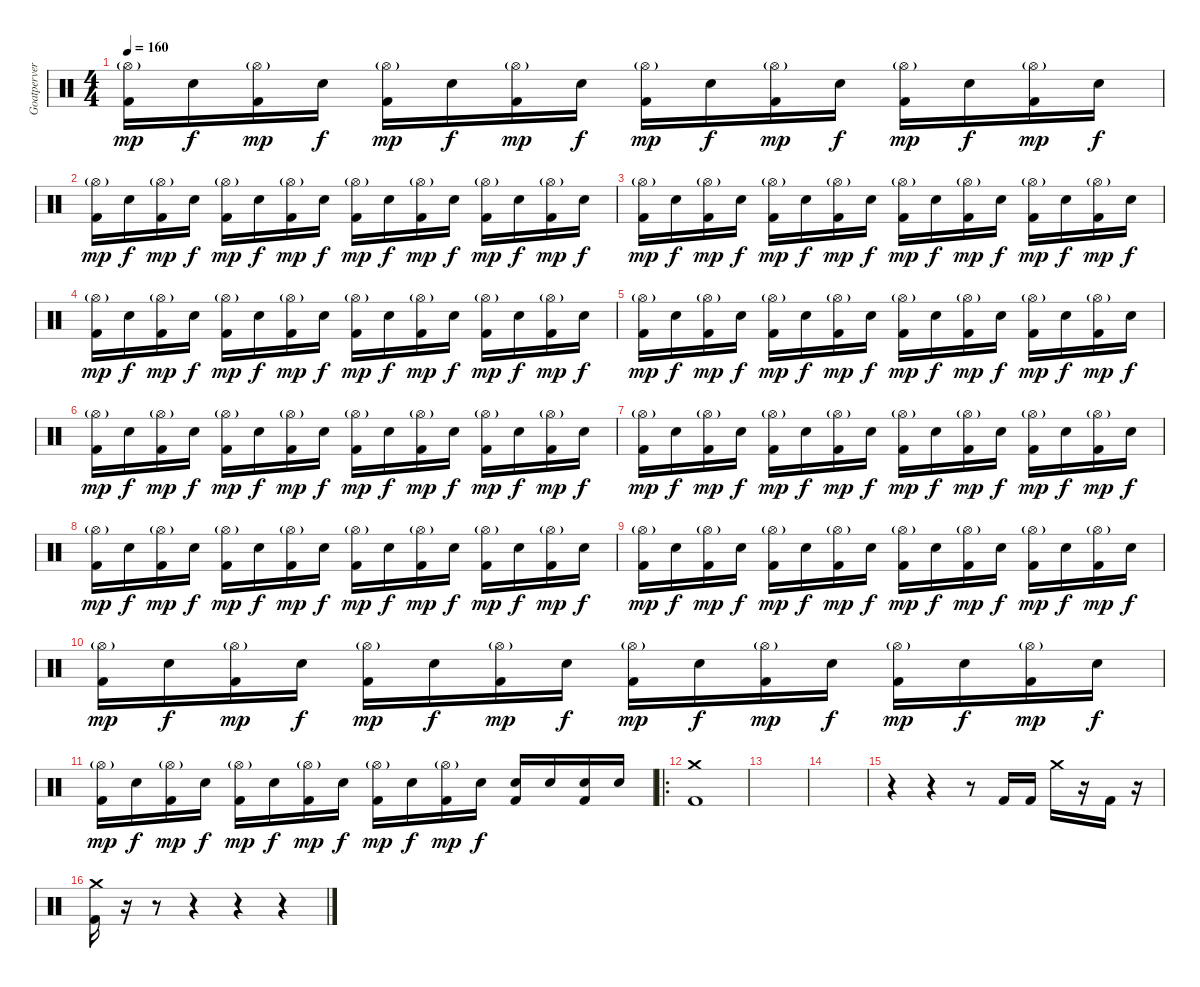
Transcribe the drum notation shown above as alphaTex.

\track ("Goatpervertor " "Goatperver") {instrument percussion}
\staff {score}
\articulation defaults
\ts (4 4)
\tempo 160
\clef neutral
\ks c
("Hi-Hat (open)"{g} "Kick (hit) 2").16{dy mp} "Electric Snare (hit)".16{dy f} ("Hi-Hat (open)"{g} "Kick (hit) 2").16{dy mp} "Electric Snare (hit)".16{dy f} ("Hi-Hat (open)"{g} "Kick (hit) 2").16{dy mp} "Electric Snare (hit)".16{dy f} ("Hi-Hat (open)"{g} "Kick (hit) 2").16{dy mp} "Electric Snare (hit)".16{dy f} ("Hi-Hat (open)"{g} "Kick (hit) 2").16{dy mp} "Electric Snare (hit)".16{dy f} ("Hi-Hat (open)"{g} "Kick (hit) 2").16{dy mp} "Electric Snare (hit)".16{dy f} ("Hi-Hat (open)"{g} "Kick (hit) 2").16{dy mp} "Electric Snare (hit)".16{dy f} ("Hi-Hat (open)"{g} "Kick (hit) 2").16{dy mp} "Electric Snare (hit)".16{dy f} |
("Hi-Hat (open)"{g} "Kick (hit) 2").16{dy mp} "Electric Snare (hit)".16{dy f} ("Hi-Hat (open)"{g} "Kick (hit) 2").16{dy mp} "Electric Snare (hit)".16{dy f} ("Hi-Hat (open)"{g} "Kick (hit) 2").16{dy mp} "Electric Snare (hit)".16{dy f} ("Hi-Hat (open)"{g} "Kick (hit) 2").16{dy mp} "Electric Snare (hit)".16{dy f} ("Hi-Hat (open)"{g} "Kick (hit) 2").16{dy mp} "Electric Snare (hit)".16{dy f} ("Hi-Hat (open)"{g} "Kick (hit) 2").16{dy mp} "Electric Snare (hit)".16{dy f} ("Hi-Hat (open)"{g} "Kick (hit) 2").16{dy mp} "Electric Snare (hit)".16{dy f} ("Hi-Hat (open)"{g} "Kick (hit) 2").16{dy mp} "Electric Snare (hit)".16{dy f} |
("Hi-Hat (open)"{g} "Kick (hit) 2").16{dy mp} "Electric Snare (hit)".16{dy f} ("Hi-Hat (open)"{g} "Kick (hit) 2").16{dy mp} "Electric Snare (hit)".16{dy f} ("Hi-Hat (open)"{g} "Kick (hit) 2").16{dy mp} "Electric Snare (hit)".16{dy f} ("Hi-Hat (open)"{g} "Kick (hit) 2").16{dy mp} "Electric Snare (hit)".16{dy f} ("Hi-Hat (open)"{g} "Kick (hit) 2").16{dy mp} "Electric Snare (hit)".16{dy f} ("Hi-Hat (open)"{g} "Kick (hit) 2").16{dy mp} "Electric Snare (hit)".16{dy f} ("Hi-Hat (open)"{g} "Kick (hit) 2").16{dy mp} "Electric Snare (hit)".16{dy f} ("Hi-Hat (open)"{g} "Kick (hit) 2").16{dy mp} "Electric Snare (hit)".16{dy f} |
("Hi-Hat (open)"{g} "Kick (hit) 2").16{dy mp} "Electric Snare (hit)".16{dy f} ("Hi-Hat (open)"{g} "Kick (hit) 2").16{dy mp} "Electric Snare (hit)".16{dy f} ("Hi-Hat (open)"{g} "Kick (hit) 2").16{dy mp} "Electric Snare (hit)".16{dy f} ("Hi-Hat (open)"{g} "Kick (hit) 2").16{dy mp} "Electric Snare (hit)".16{dy f} ("Hi-Hat (open)"{g} "Kick (hit) 2").16{dy mp} "Electric Snare (hit)".16{dy f} ("Hi-Hat (open)"{g} "Kick (hit) 2").16{dy mp} "Electric Snare (hit)".16{dy f} ("Hi-Hat (open)"{g} "Kick (hit) 2").16{dy mp} "Electric Snare (hit)".16{dy f} ("Hi-Hat (open)"{g} "Kick (hit) 2").16{dy mp} "Electric Snare (hit)".16{dy f} |
("Hi-Hat (open)"{g} "Kick (hit) 2").16{dy mp} "Electric Snare (hit)".16{dy f} ("Hi-Hat (open)"{g} "Kick (hit) 2").16{dy mp} "Electric Snare (hit)".16{dy f} ("Hi-Hat (open)"{g} "Kick (hit) 2").16{dy mp} "Electric Snare (hit)".16{dy f} ("Hi-Hat (open)"{g} "Kick (hit) 2").16{dy mp} "Electric Snare (hit)".16{dy f} ("Hi-Hat (open)"{g} "Kick (hit) 2").16{dy mp} "Electric Snare (hit)".16{dy f} ("Hi-Hat (open)"{g} "Kick (hit) 2").16{dy mp} "Electric Snare (hit)".16{dy f} ("Hi-Hat (open)"{g} "Kick (hit) 2").16{dy mp} "Electric Snare (hit)".16{dy f} ("Hi-Hat (open)"{g} "Kick (hit) 2").16{dy mp} "Electric Snare (hit)".16{dy f} |
("Hi-Hat (open)"{g} "Kick (hit) 2").16{dy mp} "Electric Snare (hit)".16{dy f} ("Hi-Hat (open)"{g} "Kick (hit) 2").16{dy mp} "Electric Snare (hit)".16{dy f} ("Hi-Hat (open)"{g} "Kick (hit) 2").16{dy mp} "Electric Snare (hit)".16{dy f} ("Hi-Hat (open)"{g} "Kick (hit) 2").16{dy mp} "Electric Snare (hit)".16{dy f} ("Hi-Hat (open)"{g} "Kick (hit) 2").16{dy mp} "Electric Snare (hit)".16{dy f} ("Hi-Hat (open)"{g} "Kick (hit) 2").16{dy mp} "Electric Snare (hit)".16{dy f} ("Hi-Hat (open)"{g} "Kick (hit) 2").16{dy mp} "Electric Snare (hit)".16{dy f} ("Hi-Hat (open)"{g} "Kick (hit) 2").16{dy mp} "Electric Snare (hit)".16{dy f} |
("Hi-Hat (open)"{g} "Kick (hit) 2").16{dy mp} "Electric Snare (hit)".16{dy f} ("Hi-Hat (open)"{g} "Kick (hit) 2").16{dy mp} "Electric Snare (hit)".16{dy f} ("Hi-Hat (open)"{g} "Kick (hit) 2").16{dy mp} "Electric Snare (hit)".16{dy f} ("Hi-Hat (open)"{g} "Kick (hit) 2").16{dy mp} "Electric Snare (hit)".16{dy f} ("Hi-Hat (open)"{g} "Kick (hit) 2").16{dy mp} "Electric Snare (hit)".16{dy f} ("Hi-Hat (open)"{g} "Kick (hit) 2").16{dy mp} "Electric Snare (hit)".16{dy f} ("Hi-Hat (open)"{g} "Kick (hit) 2").16{dy mp} "Electric Snare (hit)".16{dy f} ("Hi-Hat (open)"{g} "Kick (hit) 2").16{dy mp} "Electric Snare (hit)".16{dy f} |
("Hi-Hat (open)"{g} "Kick (hit) 2").16{dy mp} "Electric Snare (hit)".16{dy f} ("Hi-Hat (open)"{g} "Kick (hit) 2").16{dy mp} "Electric Snare (hit)".16{dy f} ("Hi-Hat (open)"{g} "Kick (hit) 2").16{dy mp} "Electric Snare (hit)".16{dy f} ("Hi-Hat (open)"{g} "Kick (hit) 2").16{dy mp} "Electric Snare (hit)".16{dy f} ("Hi-Hat (open)"{g} "Kick (hit) 2").16{dy mp} "Electric Snare (hit)".16{dy f} ("Hi-Hat (open)"{g} "Kick (hit) 2").16{dy mp} "Electric Snare (hit)".16{dy f} ("Hi-Hat (open)"{g} "Kick (hit) 2").16{dy mp} "Electric Snare (hit)".16{dy f} ("Hi-Hat (open)"{g} "Kick (hit) 2").16{dy mp} "Electric Snare (hit)".16{dy f} |
("Hi-Hat (open)"{g} "Kick (hit) 2").16{dy mp} "Electric Snare (hit)".16{dy f} ("Hi-Hat (open)"{g} "Kick (hit) 2").16{dy mp} "Electric Snare (hit)".16{dy f} ("Hi-Hat (open)"{g} "Kick (hit) 2").16{dy mp} "Electric Snare (hit)".16{dy f} ("Hi-Hat (open)"{g} "Kick (hit) 2").16{dy mp} "Electric Snare (hit)".16{dy f} ("Hi-Hat (open)"{g} "Kick (hit) 2").16{dy mp} "Electric Snare (hit)".16{dy f} ("Hi-Hat (open)"{g} "Kick (hit) 2").16{dy mp} "Electric Snare (hit)".16{dy f} ("Hi-Hat (open)"{g} "Kick (hit) 2").16{dy mp} "Electric Snare (hit)".16{dy f} ("Hi-Hat (open)"{g} "Kick (hit) 2").16{dy mp} "Electric Snare (hit)".16{dy f} |
("Hi-Hat (open)"{g} "Kick (hit) 2").16{dy mp} "Electric Snare (hit)".16{dy f} ("Hi-Hat (open)"{g} "Kick (hit) 2").16{dy mp} "Electric Snare (hit)".16{dy f} ("Hi-Hat (open)"{g} "Kick (hit) 2").16{dy mp} "Electric Snare (hit)".16{dy f} ("Hi-Hat (open)"{g} "Kick (hit) 2").16{dy mp} "Electric Snare (hit)".16{dy f} ("Hi-Hat (open)"{g} "Kick (hit) 2").16{dy mp} "Electric Snare (hit)".16{dy f} ("Hi-Hat (open)"{g} "Kick (hit) 2").16{dy mp} "Electric Snare (hit)".16{dy f} ("Hi-Hat (open)"{g} "Kick (hit) 2").16{dy mp} "Electric Snare (hit)".16{dy f} ("Hi-Hat (open)"{g} "Kick (hit) 2").16{dy mp} "Electric Snare (hit)".16{dy f} |
("Hi-Hat (open)"{g} "Kick (hit) 2").16{dy mp} "Electric Snare (hit)".16{dy f} ("Hi-Hat (open)"{g} "Kick (hit) 2").16{dy mp} "Electric Snare (hit)".16{dy f} ("Hi-Hat (open)"{g} "Kick (hit) 2").16{dy mp} "Electric Snare (hit)".16{dy f} ("Hi-Hat (open)"{g} "Kick (hit) 2").16{dy mp} "Electric Snare (hit)".16{dy f} ("Hi-Hat (open)"{g} "Kick (hit) 2").16{dy mp} "Electric Snare (hit)".16{dy f} ("Hi-Hat (open)"{g} "Kick (hit) 2").16{dy mp} "Electric Snare (hit)".16{dy f} ("Electric Snare (hit)" "Kick (hit) 2").16 "Electric Snare (hit)".16 ("Electric Snare (hit)" "Kick (hit) 2").16 "Electric Snare (hit)".16 |
\ro
("Crash medium (hit)" "Kick (hit) 2").1 |
|
|
r.4 r.4 r.8 "Kick (hit) 2".16 "Kick (hit) 2".16 "Crash medium (hit)".16 r.16 "Kick (hit) 2".16 r.16 |
("Crash medium (hit)" "Kick (hit) 2").16 r.16 r.8{volume 0} r.4 r.4 r.4
